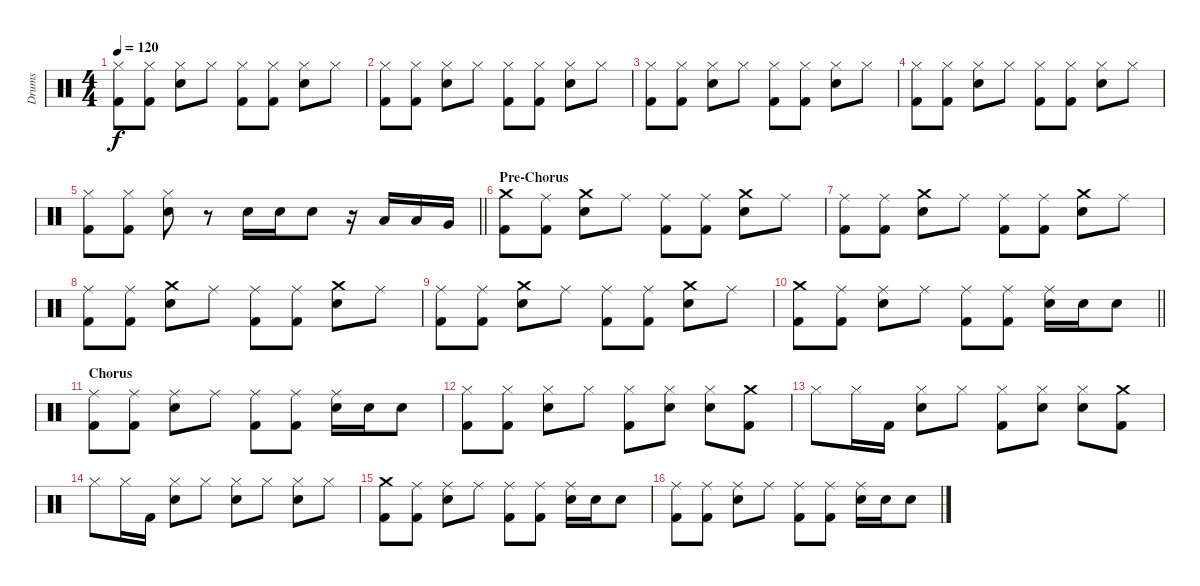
\track ("Drums" "Drums") {instrument percussion}
\staff {score}
\articulation defaults
\ts (4 4)
\tempo 120
\clef neutral
\ks c
("Hi-Hat (closed)" "Kick (hit) 2").8{dy f} ("Hi-Hat (closed)" "Kick (hit) 2").8 ("Hi-Hat (closed)" "Electric Snare (hit)").8 "Hi-Hat (closed)".8 ("Hi-Hat (closed)" "Kick (hit) 2").8 ("Hi-Hat (closed)" "Kick (hit) 2").8 ("Hi-Hat (closed)" "Electric Snare (hit)").8 "Hi-Hat (closed)".8 |
("Hi-Hat (closed)" "Kick (hit) 2").8 ("Hi-Hat (closed)" "Kick (hit) 2").8 ("Hi-Hat (closed)" "Electric Snare (hit)").8 "Hi-Hat (closed)".8 ("Hi-Hat (closed)" "Kick (hit) 2").8 ("Hi-Hat (closed)" "Kick (hit) 2").8 ("Hi-Hat (closed)" "Electric Snare (hit)").8 "Hi-Hat (closed)".8 |
("Hi-Hat (closed)" "Kick (hit) 2").8 ("Hi-Hat (closed)" "Kick (hit) 2").8 ("Hi-Hat (closed)" "Electric Snare (hit)").8 "Hi-Hat (closed)".8 ("Hi-Hat (closed)" "Kick (hit) 2").8 ("Hi-Hat (closed)" "Kick (hit) 2").8 ("Hi-Hat (closed)" "Electric Snare (hit)").8 "Hi-Hat (closed)".8 |
("Hi-Hat (closed)" "Kick (hit) 2").8 ("Hi-Hat (closed)" "Kick (hit) 2").8 ("Hi-Hat (closed)" "Electric Snare (hit)").8 "Hi-Hat (closed)".8 ("Hi-Hat (closed)" "Kick (hit) 2").8 ("Hi-Hat (closed)" "Kick (hit) 2").8 ("Hi-Hat (closed)" "Electric Snare (hit)").8 "Hi-Hat (closed)".8 |
\barLineRight lightlight
("Hi-Hat (closed)" "Kick (hit) 2").8 ("Hi-Hat (closed)" "Kick (hit) 2").8 ("Hi-Hat (closed)" "Electric Snare (hit)").8 r.8 "Electric Snare (hit)".16 "Electric Snare (hit)".16 "Electric Snare (hit)".8 r.16 "Low Tom (hit)".16 "Low Tom (hit)".16 "Very Low Tom (hit)".16 |
\section ("" "Pre-Chorus")
("Crash medium (hit)" "Kick (hit) 2").8 ("Ride (middle)" "Kick (hit) 2").8 ("Crash medium (hit)" "Electric Snare (hit)").8 "Ride (middle)".8 ("Ride (middle)" "Kick (hit) 2").8 ("Ride (middle)" "Kick (hit) 2").8 ("Crash medium (hit)" "Electric Snare (hit)").8 "Ride (middle)".8 |
("Ride (middle)" "Kick (hit) 2").8 ("Ride (middle)" "Kick (hit) 2").8 ("Crash medium (hit)" "Electric Snare (hit)").8 "Ride (middle)".8 ("Ride (middle)" "Kick (hit) 2").8 ("Ride (middle)" "Kick (hit) 2").8 ("Crash medium (hit)" "Electric Snare (hit)").8 "Ride (middle)".8 |
("Ride (middle)" "Kick (hit) 2").8 ("Ride (middle)" "Kick (hit) 2").8 ("Crash medium (hit)" "Electric Snare (hit)").8 "Ride (middle)".8 ("Ride (middle)" "Kick (hit) 2").8 ("Ride (middle)" "Kick (hit) 2").8 ("Crash medium (hit)" "Electric Snare (hit)").8 "Ride (middle)".8 |
("Ride (middle)" "Kick (hit) 2").8 ("Ride (middle)" "Kick (hit) 2").8 ("Crash medium (hit)" "Electric Snare (hit)").8 "Ride (middle)".8 ("Ride (middle)" "Kick (hit) 2").8 ("Ride (middle)" "Kick (hit) 2").8 ("Crash medium (hit)" "Electric Snare (hit)").8 "Ride (middle)".8 |
\barLineRight lightlight
("Crash medium (hit)" "Kick (hit) 2").8 ("Ride (middle)" "Kick (hit) 2").8 ("Ride (middle)" "Electric Snare (hit)").8 "Ride (middle)".8 ("Ride (middle)" "Kick (hit) 2").8 ("Ride (middle)" "Kick (hit) 2").8 ("Ride (middle)" "Electric Snare (hit)").16 "Electric Snare (hit)".16 "Electric Snare (hit)".8 |
\section ("" "Chorus")
("Ride (middle)" "Kick (hit) 2").8 ("Ride (middle)" "Kick (hit) 2").8 ("Ride (middle)" "Electric Snare (hit)").8 "Ride (middle)".8 ("Ride (middle)" "Kick (hit) 2").8 ("Ride (middle)" "Kick (hit) 2").8 ("Ride (middle)" "Electric Snare (hit)").16 "Electric Snare (hit)".16 "Electric Snare (hit)".8 |
("Hi-Hat (closed)" "Kick (hit) 2").8 ("Hi-Hat (closed)" "Kick (hit) 2").8 ("Hi-Hat (closed)" "Electric Snare (hit)").8 "Hi-Hat (closed)".8 ("Hi-Hat (closed)" "Kick (hit) 2").8 ("Hi-Hat (closed)" "Electric Snare (hit)").8 ("Hi-Hat (closed)" "Electric Snare (hit)").8 ("Crash medium (hit)" "Kick (hit) 2").8 |
"Hi-Hat (closed)".8 "Hi-Hat (closed)".16 "Kick (hit) 2".16 ("Hi-Hat (closed)" "Electric Snare (hit)").8 "Hi-Hat (closed)".8 ("Hi-Hat (closed)" "Kick (hit) 2").8 ("Hi-Hat (closed)" "Electric Snare (hit)").8 ("Hi-Hat (closed)" "Electric Snare (hit)").8 ("Crash medium (hit)" "Kick (hit) 2").8 |
"Hi-Hat (closed)".8 "Hi-Hat (closed)".16 "Kick (hit) 2".16 ("Hi-Hat (closed)" "Electric Snare (hit)").8 "Hi-Hat (closed)".8 ("Hi-Hat (closed)" "Electric Snare (hit)").8 "Hi-Hat (closed)".8 ("Hi-Hat (closed)" "Electric Snare (hit)").8 "Hi-Hat (closed)".8 |
("Crash medium (hit)" "Kick (hit) 2").8 ("Ride (middle)" "Kick (hit) 2").8 ("Ride (middle)" "Electric Snare (hit)").8 "Ride (middle)".8 ("Ride (middle)" "Kick (hit) 2").8 ("Ride (middle)" "Kick (hit) 2").8 ("Ride (middle)" "Electric Snare (hit)").16 "Electric Snare (hit)".16 "Electric Snare (hit)".8 |
("Ride (middle)" "Kick (hit) 2").8 ("Ride (middle)" "Kick (hit) 2").8 ("Ride (middle)" "Electric Snare (hit)").8 "Ride (middle)".8 ("Ride (middle)" "Kick (hit) 2").8 ("Ride (middle)" "Kick (hit) 2").8 ("Ride (middle)" "Electric Snare (hit)").16 "Electric Snare (hit)".16 "Electric Snare (hit)".8
